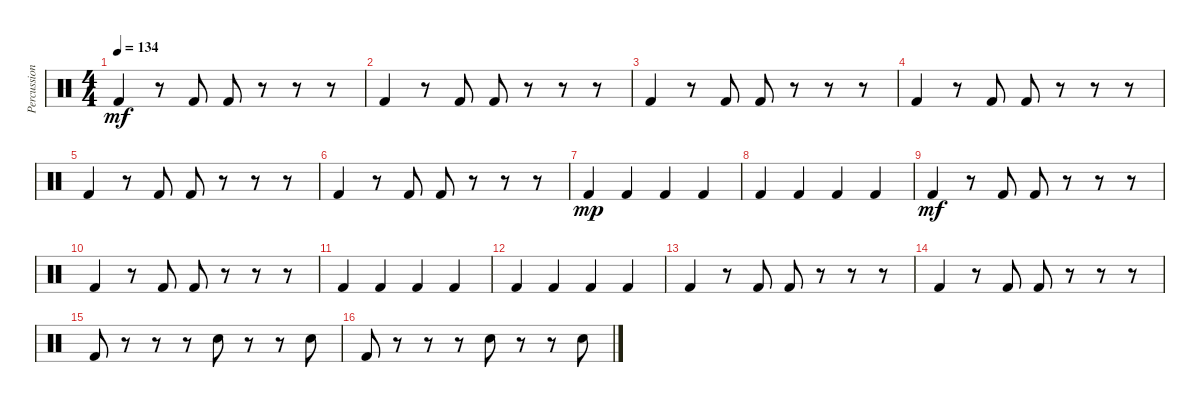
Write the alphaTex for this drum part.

\track ("Percussion" "Percussion") {instrument percussion}
\staff {score}
\articulation defaults
\ts (4 4)
\tempo 134
\clef neutral
\ks c "Kick (hit) 2".4{dy mf}
r.8 "Kick (hit) 2".8 "Kick (hit) 2".8 r.8 r.8 r.8 |
"Kick (hit) 2".4 r.8 "Kick (hit) 2".8 "Kick (hit) 2".8 r.8 r.8 r.8 |
"Kick (hit) 2".4 r.8 "Kick (hit) 2".8 "Kick (hit) 2".8 r.8 r.8 r.8 |
"Kick (hit) 2".4 r.8 "Kick (hit) 2".8 "Kick (hit) 2".8 r.8 r.8 r.8 |
"Kick (hit) 2".4 r.8 "Kick (hit) 2".8 "Kick (hit) 2".8 r.8 r.8 r.8 |
"Kick (hit) 2".4 r.8 "Kick (hit) 2".8 "Kick (hit) 2".8 r.8 r.8 r.8 |
"Kick (hit) 2".4{dy mp} "Kick (hit) 2".4 "Kick (hit) 2".4 "Kick (hit) 2".4 |
"Kick (hit) 2".4 "Kick (hit) 2".4 "Kick (hit) 2".4 "Kick (hit) 2".4 |
"Kick (hit) 2".4{dy mf} r.8 "Kick (hit) 2".8 "Kick (hit) 2".8 r.8 r.8 r.8 |
"Kick (hit) 2".4 r.8 "Kick (hit) 2".8 "Kick (hit) 2".8 r.8 r.8 r.8 |
"Kick (hit) 2".4 "Kick (hit) 2".4 "Kick (hit) 2".4 "Kick (hit) 2".4 |
"Kick (hit) 2".4 "Kick (hit) 2".4 "Kick (hit) 2".4 "Kick (hit) 2".4 |
"Kick (hit) 2".4 r.8 "Kick (hit) 2".8 "Kick (hit) 2".8 r.8 r.8 r.8 |
"Kick (hit) 2".4 r.8 "Kick (hit) 2".8 "Kick (hit) 2".8 r.8 r.8 r.8 |
"Kick (hit) 2".8 r.8 r.8 r.8 "Snare (hit) 2".8 r.8 r.8 "Snare (hit) 2".8 |
"Kick (hit) 2".8 r.8 r.8 r.8 "Snare (hit) 2".8 r.8 r.8 "Snare (hit) 2".8
